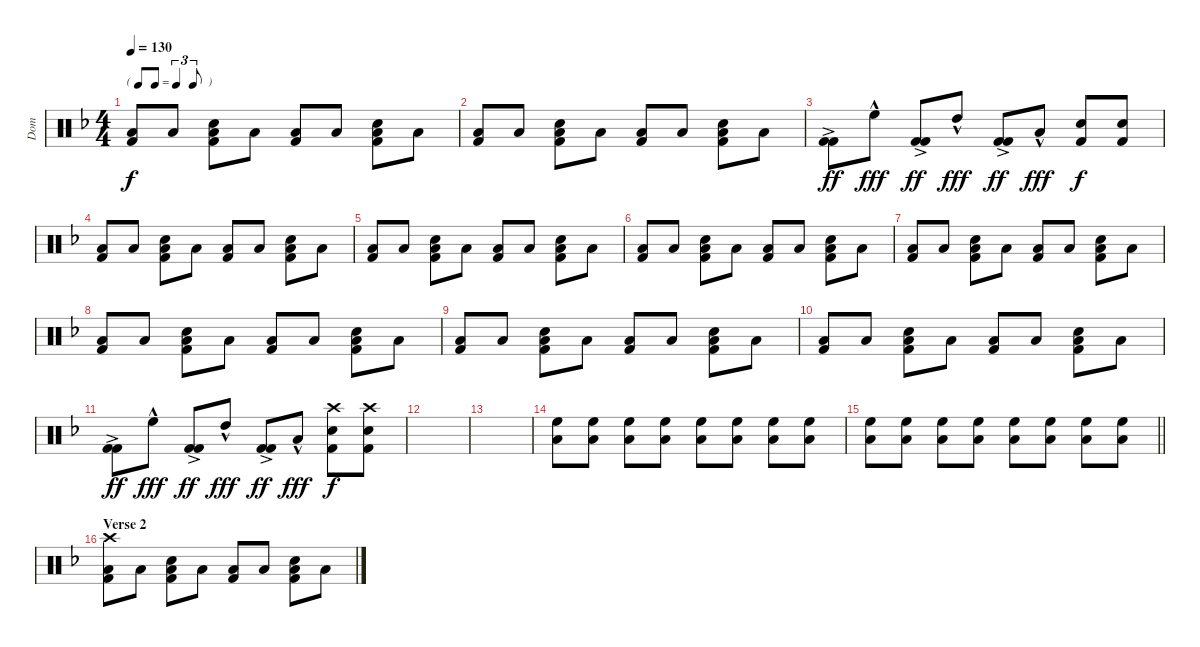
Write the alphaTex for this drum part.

\track ("Dom" "Dom") {instrument percussion}
\staff {score}
\articulation defaults
\ts (4 4)
\tf triplet8th
\tempo 130
\clef neutral
\ks dminor
("Low Tom (hit)" "Kick (hit) 2").8{dy f} "Low Tom (hit)".8 ("Electric Snare (hit)" "Low Tom (hit)" "Kick (hit) 2").8 "Low Tom (hit)".8 ("Low Tom (hit)" "Kick (hit) 2").8 "Low Tom (hit)".8 ("Electric Snare (hit)" "Low Tom (hit)" "Kick (hit) 2").8 "Low Tom (hit)".8 |
("Low Tom (hit)" "Kick (hit) 2").8 "Low Tom (hit)".8 ("Electric Snare (hit)" "Low Tom (hit)" "Kick (hit) 2").8 "Low Tom (hit)".8 ("Low Tom (hit)" "Kick (hit) 2").8 "Low Tom (hit)".8 ("Electric Snare (hit)" "Low Tom (hit)" "Kick (hit) 2").8 "Low Tom (hit)".8 |
("Kick (hit) 2"{ac} "Kick (hit) 2").8{dy ff} "High Floor Tom (hit)"{hac}.8{dy fff} ("Kick (hit) 2"{ac} "Kick (hit) 2").8{dy ff} "High Tom (hit)"{hac}.8{dy fff} ("Kick (hit) 2"{ac} "Kick (hit) 2").8{dy ff} "Low Tom (hit)"{hac}.8{dy fff} ("Electric Snare (hit)" "Kick (hit) 2").8{dy f} ("Electric Snare (hit)" "Kick (hit) 2").8 |
("Low Tom (hit)" "Kick (hit) 2").8 "Low Tom (hit)".8 ("Electric Snare (hit)" "Low Tom (hit)" "Kick (hit) 2").8 "Low Tom (hit)".8 ("Low Tom (hit)" "Kick (hit) 2").8 "Low Tom (hit)".8 ("Electric Snare (hit)" "Low Tom (hit)" "Kick (hit) 2").8 "Low Tom (hit)".8 |
("Low Tom (hit)" "Kick (hit) 2").8 "Low Tom (hit)".8 ("Electric Snare (hit)" "Low Tom (hit)" "Kick (hit) 2").8 "Low Tom (hit)".8 ("Low Tom (hit)" "Kick (hit) 2").8 "Low Tom (hit)".8 ("Electric Snare (hit)" "Low Tom (hit)" "Kick (hit) 2").8 "Low Tom (hit)".8 |
("Low Tom (hit)" "Kick (hit) 2").8 "Low Tom (hit)".8 ("Electric Snare (hit)" "Low Tom (hit)" "Kick (hit) 2").8 "Low Tom (hit)".8 ("Low Tom (hit)" "Kick (hit) 2").8 "Low Tom (hit)".8 ("Electric Snare (hit)" "Low Tom (hit)" "Kick (hit) 2").8 "Low Tom (hit)".8 |
("Low Tom (hit)" "Kick (hit) 2").8 "Low Tom (hit)".8 ("Electric Snare (hit)" "Low Tom (hit)" "Kick (hit) 2").8 "Low Tom (hit)".8 ("Low Tom (hit)" "Kick (hit) 2").8 "Low Tom (hit)".8 ("Electric Snare (hit)" "Low Tom (hit)" "Kick (hit) 2").8 "Low Tom (hit)".8 |
("Low Tom (hit)" "Kick (hit) 2").8 "Low Tom (hit)".8 ("Electric Snare (hit)" "Low Tom (hit)" "Kick (hit) 2").8 "Low Tom (hit)".8 ("Low Tom (hit)" "Kick (hit) 2").8 "Low Tom (hit)".8 ("Electric Snare (hit)" "Low Tom (hit)" "Kick (hit) 2").8 "Low Tom (hit)".8 |
("Low Tom (hit)" "Kick (hit) 2").8 "Low Tom (hit)".8 ("Electric Snare (hit)" "Low Tom (hit)" "Kick (hit) 2").8 "Low Tom (hit)".8 ("Low Tom (hit)" "Kick (hit) 2").8 "Low Tom (hit)".8 ("Electric Snare (hit)" "Low Tom (hit)" "Kick (hit) 2").8 "Low Tom (hit)".8 |
("Low Tom (hit)" "Kick (hit) 2").8 "Low Tom (hit)".8 ("Electric Snare (hit)" "Low Tom (hit)" "Kick (hit) 2").8 "Low Tom (hit)".8 ("Low Tom (hit)" "Kick (hit) 2").8 "Low Tom (hit)".8 ("Electric Snare (hit)" "Low Tom (hit)" "Kick (hit) 2").8 "Low Tom (hit)".8 |
("Kick (hit) 2"{ac} "Kick (hit) 2").8{dy ff} "High Floor Tom (hit)"{hac}.8{dy fff} ("Kick (hit) 2"{ac} "Kick (hit) 2").8{dy ff} "High Tom (hit)"{hac}.8{dy fff} ("Kick (hit) 2"{ac} "Kick (hit) 2").8{dy ff} "Low Tom (hit)"{hac}.8{dy fff} ("Crash high (hit)" "Electric Snare (hit)" "Kick (hit) 2").8{dy f} ("Crash high (hit)" "Electric Snare (hit)" "Kick (hit) 2").8 |
|
|
("Low Tom (hit)" "High Floor Tom (hit)").8{volume 5} ("Low Tom (hit)" "High Floor Tom (hit)").8{volume 16} ("Low Tom (hit)" "High Floor Tom (hit)").8 ("Low Tom (hit)" "High Floor Tom (hit)").8 ("Low Tom (hit)" "High Floor Tom (hit)").8 ("Low Tom (hit)" "High Floor Tom (hit)").8 ("Low Tom (hit)" "High Floor Tom (hit)").8 ("Low Tom (hit)" "High Floor Tom (hit)").8 |
\barLineRight lightlight
("Low Tom (hit)" "High Floor Tom (hit)").8 ("Low Tom (hit)" "High Floor Tom (hit)").8 ("Low Tom (hit)" "High Floor Tom (hit)").8 ("Low Tom (hit)" "High Floor Tom (hit)").8 ("Low Tom (hit)" "High Floor Tom (hit)").8 ("Low Tom (hit)" "High Floor Tom (hit)").8 ("Low Tom (hit)" "High Floor Tom (hit)").8 ("Low Tom (hit)" "High Floor Tom (hit)").8 |
\section ("" "Verse 2")
("Crash high (hit)" "Low Tom (hit)" "Kick (hit) 2").8 "Low Tom (hit)".8 ("Electric Snare (hit)" "Low Tom (hit)" "Kick (hit) 2").8 "Low Tom (hit)".8 ("Low Tom (hit)" "Kick (hit) 2").8 "Low Tom (hit)".8 ("Electric Snare (hit)" "Low Tom (hit)" "Kick (hit) 2").8 "Low Tom (hit)".8
